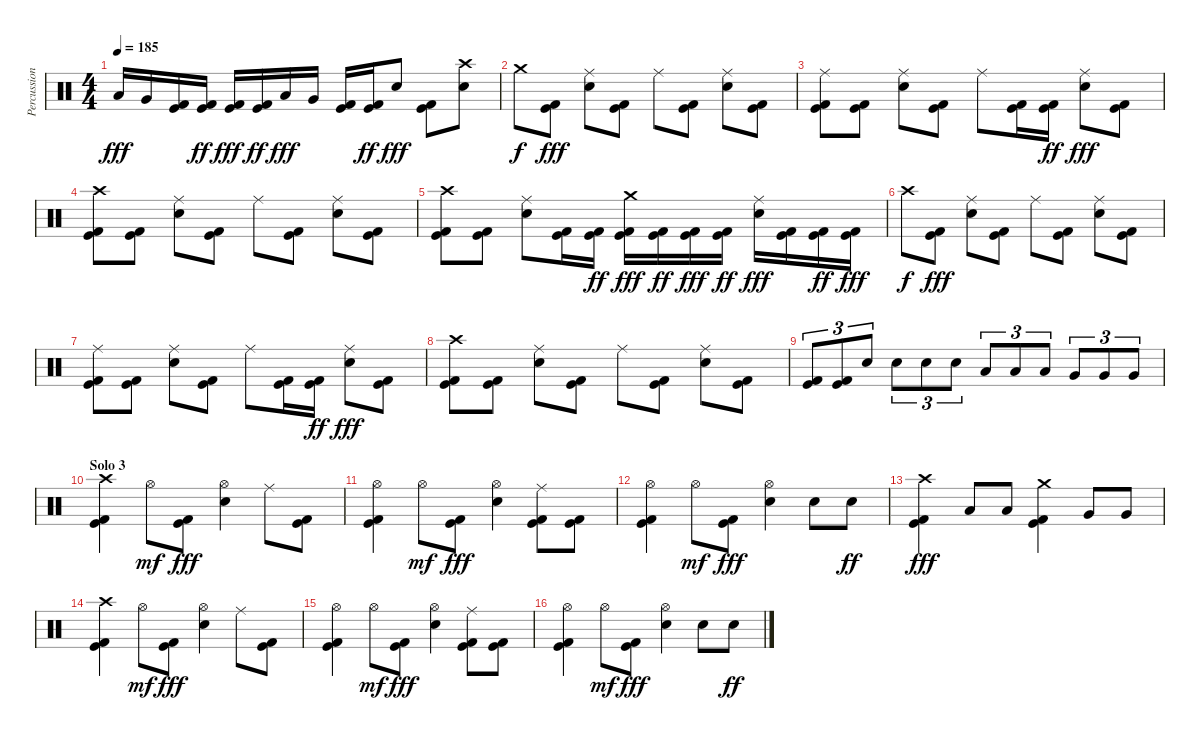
\track ("Percussion" "Percussion") {instrument percussion}
\staff {score}
\articulation defaults
\ts (4 4)
\tempo 185
\clef neutral
\ks c "Low Tom (hit)".16{dy fff} "Very Low Tom (hit)".16
("Kick (hit)" "Kick (hit) 2").16 ("Kick (hit)" "Kick (hit) 2").16{dy ff} ("Kick (hit)" "Kick (hit) 2").16{dy fff} ("Kick (hit)" "Kick (hit) 2").16{dy ff} "Low Tom (hit)".16{dy fff} "Very Low Tom (hit)".16 ("Kick (hit)" "Kick (hit) 2").16 ("Kick (hit)" "Kick (hit) 2").16{dy ff} "Snare (hit) 2".8{dy fff} ("Kick (hit)" "Kick (hit) 2").8 ("Crash high (hit)" "Snare (hit) 2").8 |
"Crash medium (hit)".8{dy f} ("Kick (hit)" "Kick (hit) 2").8{dy fff} ("Ride (middle)" "Snare (hit) 2").8 ("Kick (hit)" "Kick (hit) 2").8 "Ride (middle)".8 ("Kick (hit)" "Kick (hit) 2").8 ("Ride (middle)" "Snare (hit) 2").8 ("Kick (hit)" "Kick (hit) 2").8 |
("Ride (middle)" "Kick (hit)" "Kick (hit) 2").8 ("Kick (hit)" "Kick (hit) 2").8 ("Ride (middle)" "Snare (hit) 2").8 ("Kick (hit)" "Kick (hit) 2").8 "Ride (middle)".8 ("Kick (hit)" "Kick (hit) 2").16 ("Kick (hit)" "Kick (hit) 2").16{dy ff} ("Ride (middle)" "Snare (hit) 2").8{dy fff} ("Kick (hit)" "Kick (hit) 2").8 |
("Crash high (hit)" "Kick (hit)" "Kick (hit) 2").8 ("Kick (hit)" "Kick (hit) 2").8 ("Ride (middle)" "Snare (hit) 2").8 ("Kick (hit)" "Kick (hit) 2").8 "Ride (middle)".8 ("Kick (hit)" "Kick (hit) 2").8 ("Ride (middle)" "Snare (hit) 2").8 ("Kick (hit)" "Kick (hit) 2").8 |
("Crash high (hit)" "Kick (hit)" "Kick (hit) 2").8 ("Kick (hit)" "Kick (hit) 2").8 ("Ride (middle)" "Snare (hit) 2").8 ("Kick (hit)" "Kick (hit) 2").16 ("Kick (hit)" "Kick (hit) 2").16{dy ff} ("Crash medium (hit)" "Kick (hit)" "Kick (hit) 2").16{dy fff} ("Kick (hit)" "Kick (hit) 2").16{dy ff} ("Kick (hit)" "Kick (hit) 2").16{dy fff} ("Kick (hit)" "Kick (hit) 2").16{dy ff} ("Ride (middle)" "Snare (hit) 2").16{dy fff} ("Kick (hit)" "Kick (hit) 2").16 ("Kick (hit)" "Kick (hit) 2").16{dy ff} ("Kick (hit)" "Kick (hit) 2").16{dy fff} |
"Crash high (hit)".8{dy f} ("Kick (hit)" "Kick (hit) 2").8{dy fff} ("Ride (middle)" "Snare (hit) 2").8 ("Kick (hit)" "Kick (hit) 2").8 "Ride (middle)".8 ("Kick (hit)" "Kick (hit) 2").8 ("Ride (middle)" "Snare (hit) 2").8 ("Kick (hit)" "Kick (hit) 2").8 |
("Ride (middle)" "Kick (hit)" "Kick (hit) 2").8 ("Kick (hit)" "Kick (hit) 2").8 ("Ride (middle)" "Snare (hit) 2").8 ("Kick (hit)" "Kick (hit) 2").8 "Ride (middle)".8 ("Kick (hit)" "Kick (hit) 2").16 ("Kick (hit)" "Kick (hit) 2").16{dy ff} ("Ride (middle)" "Snare (hit) 2").8{dy fff} ("Kick (hit)" "Kick (hit) 2").8 |
("Crash high (hit)" "Kick (hit)" "Kick (hit) 2").8 ("Kick (hit)" "Kick (hit) 2").8 ("Ride (middle)" "Snare (hit) 2").8 ("Kick (hit)" "Kick (hit) 2").8 "Ride (middle)".8 ("Kick (hit)" "Kick (hit) 2").8 ("Ride (middle)" "Snare (hit) 2").8 ("Kick (hit)" "Kick (hit) 2").8 |
("Kick (hit)" "Kick (hit) 2").8{tu (3 2)} ("Kick (hit)" "Kick (hit) 2").8{tu (3 2)} "Snare (hit) 2".8{tu (3 2)} "Snare (hit) 2".8{tu (3 2)} "Snare (hit) 2".8{tu (3 2)} "Snare (hit) 2".8{tu (3 2)} "Low Tom (hit)".8{tu (3 2)} "Low Tom (hit)".8{tu (3 2)} "Low Tom (hit)".8{tu (3 2)} "Very Low Tom (hit)".8{tu (3 2)} "Very Low Tom (hit)".8{tu (3 2)} "Very Low Tom (hit)".8{tu (3 2)} |
\section ("" "Solo 3")
("Crash high (hit)" "Kick (hit)" "Kick (hit) 2").4 "Hi-Hat (open)".8{dy mf} ("Kick (hit)" "Kick (hit) 2").8{dy fff} ("Hi-Hat (open)" "Snare (hit) 2").4 "Ride (middle)".8 ("Kick (hit)" "Kick (hit) 2").8 |
("Hi-Hat (open)" "Kick (hit)" "Kick (hit) 2").4 "Hi-Hat (open)".8{dy mf} ("Kick (hit)" "Kick (hit) 2").8{dy fff} ("Hi-Hat (open)" "Snare (hit) 2").4 ("Ride (middle)" "Kick (hit)" "Kick (hit) 2").8 ("Kick (hit)" "Kick (hit) 2").8 |
("Hi-Hat (open)" "Kick (hit)" "Kick (hit) 2").4 "Hi-Hat (open)".8{dy mf} ("Kick (hit)" "Kick (hit) 2").8{dy fff} ("Hi-Hat (open)" "Snare (hit) 2").4 "Snare (hit) 2".8 "Snare (hit) 2".8{dy ff} |
("Crash high (hit)" "Kick (hit)" "Kick (hit) 2").4{dy fff} "Low Tom (hit)".8 "Low Tom (hit)".8 ("Crash medium (hit)" "Kick (hit)" "Kick (hit) 2").4 "Very Low Tom (hit)".8 "Very Low Tom (hit)".8 |
("Crash high (hit)" "Kick (hit)" "Kick (hit) 2").4 "Hi-Hat (open)".8{dy mf} ("Kick (hit)" "Kick (hit) 2").8{dy fff} ("Hi-Hat (open)" "Snare (hit) 2").4 "Ride (middle)".8 ("Kick (hit)" "Kick (hit) 2").8 |
("Hi-Hat (open)" "Kick (hit)" "Kick (hit) 2").4 "Hi-Hat (open)".8{dy mf} ("Kick (hit)" "Kick (hit) 2").8{dy fff} ("Hi-Hat (open)" "Snare (hit) 2").4 ("Ride (middle)" "Kick (hit)" "Kick (hit) 2").8 ("Kick (hit)" "Kick (hit) 2").8 |
("Hi-Hat (open)" "Kick (hit)" "Kick (hit) 2").4 "Hi-Hat (open)".8{dy mf} ("Kick (hit)" "Kick (hit) 2").8{dy fff} ("Hi-Hat (open)" "Snare (hit) 2").4 "Snare (hit) 2".8 "Snare (hit) 2".8{dy ff}
